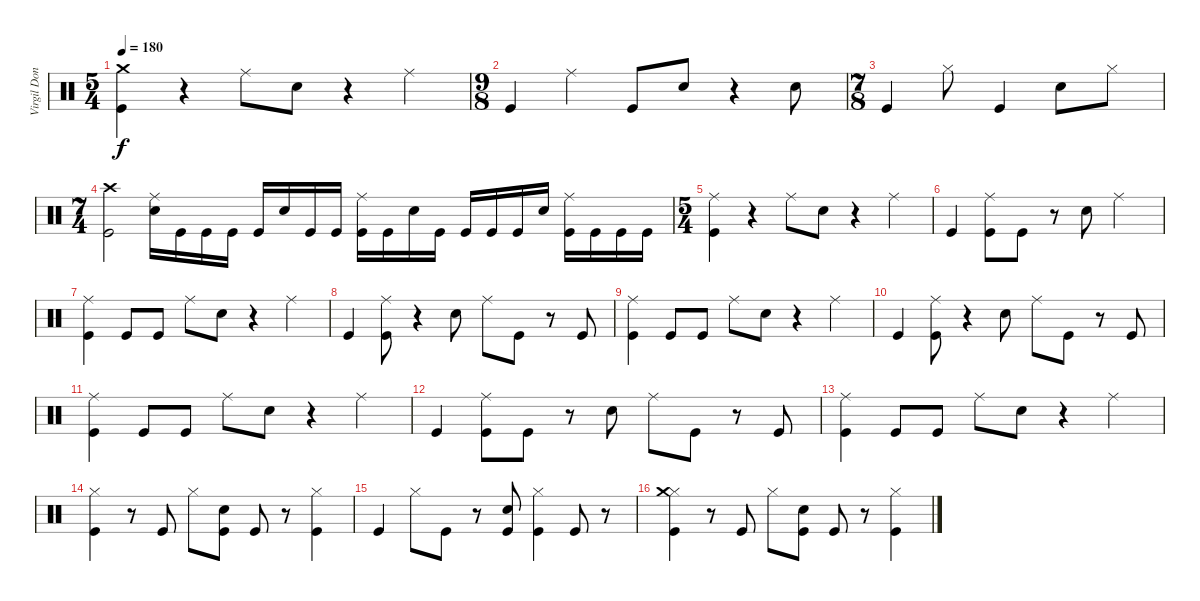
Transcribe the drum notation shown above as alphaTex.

\track ("Virgil Donati" "Virgil Don") {instrument percussion}
\staff {score}
\articulation defaults
\ts (5 4)
\tempo 180
\clef neutral
\ks c
("Crash medium (hit)" "Kick (hit)").4{dy f} r.4 "Ride (middle)".8 "Snare (hit) 2".8 r.4 "Ride (middle)".4 |
\ts (9 8)
"Kick (hit)".4 "Ride (middle)".4 "Kick (hit)".8 "Snare (hit) 2".8 r.4 "Snare (hit) 2".8 |
\ts (7 8)
"Kick (hit)".4 "Hi-Hat (closed)".8 "Kick (hit)".4 "Snare (hit) 2".8 "Hi-Hat (closed)".8 |
\ts (7 4)
("Crash high (hit)" "Kick (hit)").2 ("Ride (middle)" "Snare (hit) 2").16 "Kick (hit)".16 "Kick (hit)".16 "Kick (hit)".16 "Kick (hit)".16 "Snare (hit) 2".16 "Kick (hit)".16 "Kick (hit)".16 ("Ride (middle)" "Kick (hit)").16 "Kick (hit)".16 "Snare (hit) 2".16 "Kick (hit)".16 "Kick (hit)".16 "Kick (hit)".16 "Kick (hit)".16 "Snare (hit) 2".16 ("Ride (middle)" "Kick (hit)").16 "Kick (hit)".16 "Kick (hit)".16 "Kick (hit)".16 |
\ts (5 4)
("Ride (middle)" "Kick (hit)").4 r.4 "Ride (middle)".8 "Snare (hit) 2".8 r.4 "Ride (middle)".4 |
"Kick (hit)".4 ("Ride (middle)" "Kick (hit)").8 "Kick (hit)".8 r.8 "Snare (hit) 2".8 "Ride (middle)".2 |
("Ride (middle)" "Kick (hit)").4 "Kick (hit)".8 "Kick (hit)".8 "Ride (middle)".8 "Snare (hit) 2".8 r.4 "Ride (middle)".4 |
"Kick (hit)".4 ("Ride (middle)" "Kick (hit)").8 r.4 "Snare (hit) 2".8 "Ride (middle)".8 "Kick (hit)".8 r.8 "Kick (hit)".8 |
("Ride (middle)" "Kick (hit)").4 "Kick (hit)".8 "Kick (hit)".8 "Ride (middle)".8 "Snare (hit) 2".8 r.4 "Ride (middle)".4 |
"Kick (hit)".4 ("Ride (middle)" "Kick (hit)").8 r.4 "Snare (hit) 2".8 "Ride (middle)".8 "Kick (hit)".8 r.8 "Kick (hit)".8 |
("Ride (middle)" "Kick (hit)").4 "Kick (hit)".8 "Kick (hit)".8 "Ride (middle)".8 "Snare (hit) 2".8 r.4 "Ride (middle)".4 |
"Kick (hit)".4 ("Ride (middle)" "Kick (hit)").8 "Kick (hit)".8 r.8 "Snare (hit) 2".8 "Ride (middle)".8 "Kick (hit)".8 r.8 "Kick (hit)".8 |
("Ride (middle)" "Kick (hit)").4 "Kick (hit)".8 "Kick (hit)".8 "Ride (middle)".8 "Snare (hit) 2".8 r.4 "Ride (middle)".4 |
("Hi-Hat (closed)" "Kick (hit)").4 r.8 "Kick (hit)".8 "Hi-Hat (closed)".8 ("Snare (hit) 2" "Kick (hit)").8 "Kick (hit)".8 r.8 ("Hi-Hat (closed)" "Kick (hit)").4 |
"Kick (hit)".4 "Hi-Hat (closed)".8 "Kick (hit)".8 r.8 ("Snare (hit) 2" "Kick (hit)").8 ("Hi-Hat (closed)" "Kick (hit)").4 "Kick (hit)".8 r.8 |
("Hi-Hat (closed)" "Crash medium (hit)" "Kick (hit)").4 r.8 "Kick (hit)".8 "Hi-Hat (closed)".8 ("Snare (hit) 2" "Kick (hit)").8 "Kick (hit)".8 r.8 ("Hi-Hat (closed)" "Kick (hit)").4
